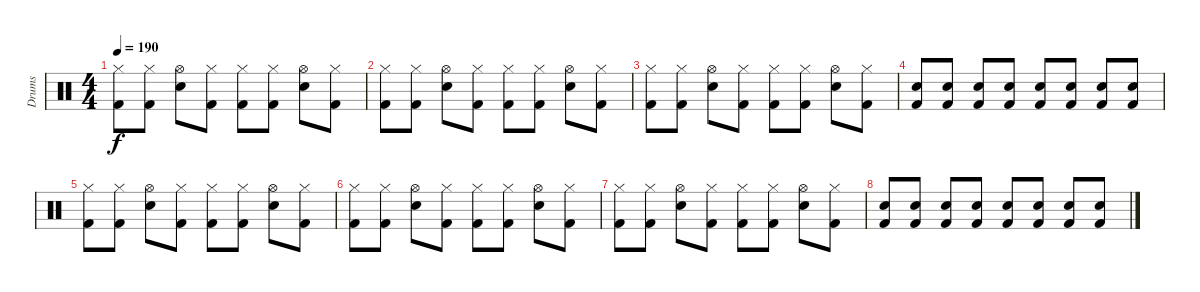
\track ("Drums" "Drums") {instrument percussion}
\staff {score}
\articulation defaults
\ts (4 4)
\tempo 190
\clef neutral
\ks c
("Hi-Hat (closed)" "Kick (hit) 2").8{dy f} ("Hi-Hat (closed)" "Kick (hit) 2").8 ("Hi-Hat (open)" "Snare (hit) 2").8 ("Hi-Hat (closed)" "Kick (hit) 2").8 ("Hi-Hat (closed)" "Kick (hit) 2").8 ("Hi-Hat (closed)" "Kick (hit) 2").8 ("Hi-Hat (open)" "Snare (hit) 2").8 ("Hi-Hat (closed)" "Kick (hit) 2").8 |
("Hi-Hat (closed)" "Kick (hit) 2").8 ("Hi-Hat (closed)" "Kick (hit) 2").8 ("Hi-Hat (open)" "Snare (hit) 2").8 ("Hi-Hat (closed)" "Kick (hit) 2").8 ("Hi-Hat (closed)" "Kick (hit) 2").8 ("Hi-Hat (closed)" "Kick (hit) 2").8 ("Hi-Hat (open)" "Snare (hit) 2").8 ("Hi-Hat (closed)" "Kick (hit) 2").8 |
("Hi-Hat (closed)" "Kick (hit) 2").8 ("Hi-Hat (closed)" "Kick (hit) 2").8 ("Hi-Hat (open)" "Snare (hit) 2").8 ("Hi-Hat (closed)" "Kick (hit) 2").8 ("Hi-Hat (closed)" "Kick (hit) 2").8 ("Hi-Hat (closed)" "Kick (hit) 2").8 ("Hi-Hat (open)" "Snare (hit) 2").8 ("Hi-Hat (closed)" "Kick (hit) 2").8 |
("Snare (hit) 2" "Kick (hit) 2").8 ("Snare (hit) 2" "Kick (hit) 2").8 ("Snare (hit) 2" "Kick (hit) 2").8 ("Snare (hit) 2" "Kick (hit) 2").8 ("Snare (hit) 2" "Kick (hit) 2").8 ("Snare (hit) 2" "Kick (hit) 2").8 ("Snare (hit) 2" "Kick (hit) 2").8 ("Snare (hit) 2" "Kick (hit) 2").8 |
("Hi-Hat (closed)" "Kick (hit) 2").8 ("Hi-Hat (closed)" "Kick (hit) 2").8 ("Hi-Hat (open)" "Snare (hit) 2").8 ("Hi-Hat (closed)" "Kick (hit) 2").8 ("Hi-Hat (closed)" "Kick (hit) 2").8 ("Hi-Hat (closed)" "Kick (hit) 2").8 ("Hi-Hat (open)" "Snare (hit) 2").8 ("Hi-Hat (closed)" "Kick (hit) 2").8 |
("Hi-Hat (closed)" "Kick (hit) 2").8 ("Hi-Hat (closed)" "Kick (hit) 2").8 ("Hi-Hat (open)" "Snare (hit) 2").8 ("Hi-Hat (closed)" "Kick (hit) 2").8 ("Hi-Hat (closed)" "Kick (hit) 2").8 ("Hi-Hat (closed)" "Kick (hit) 2").8 ("Hi-Hat (open)" "Snare (hit) 2").8 ("Hi-Hat (closed)" "Kick (hit) 2").8 |
("Hi-Hat (closed)" "Kick (hit) 2").8 ("Hi-Hat (closed)" "Kick (hit) 2").8 ("Hi-Hat (open)" "Snare (hit) 2").8 ("Hi-Hat (closed)" "Kick (hit) 2").8 ("Hi-Hat (closed)" "Kick (hit) 2").8 ("Hi-Hat (closed)" "Kick (hit) 2").8 ("Hi-Hat (open)" "Snare (hit) 2").8 ("Hi-Hat (closed)" "Kick (hit) 2").8 |
("Snare (hit) 2" "Kick (hit) 2").8 ("Snare (hit) 2" "Kick (hit) 2").8 ("Snare (hit) 2" "Kick (hit) 2").8 ("Snare (hit) 2" "Kick (hit) 2").8 ("Snare (hit) 2" "Kick (hit) 2").8 ("Snare (hit) 2" "Kick (hit) 2").8 ("Snare (hit) 2" "Kick (hit) 2").8 ("Snare (hit) 2" "Kick (hit) 2").8
